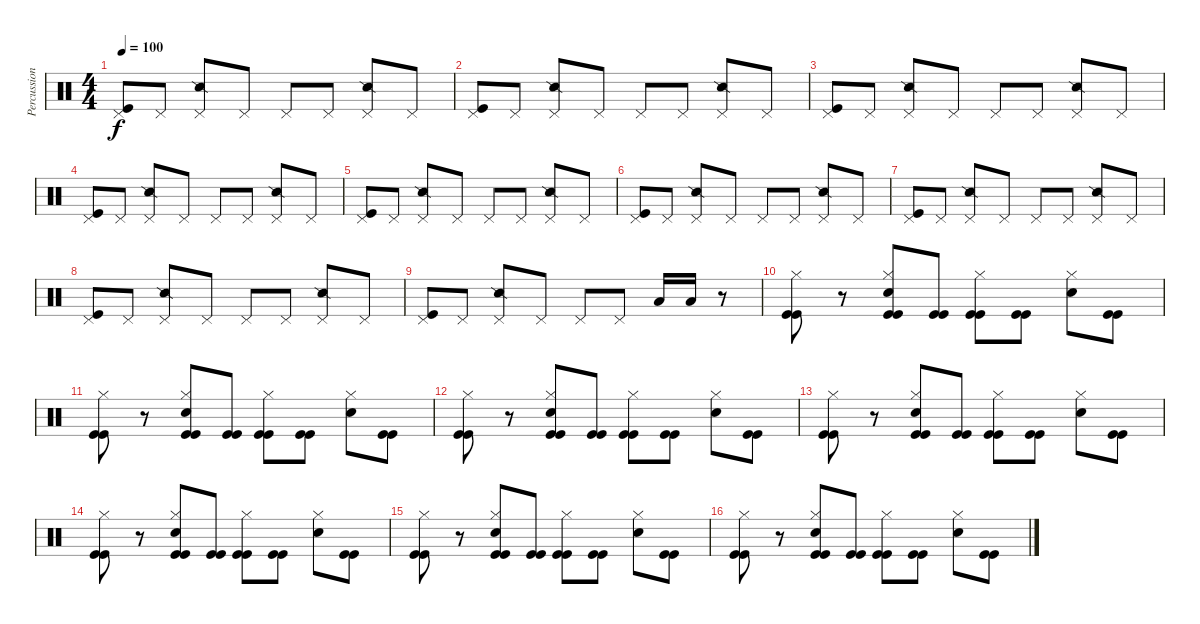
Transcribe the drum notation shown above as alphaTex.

\track ("Percussion" "Percussion") {instrument percussion}
\staff {score}
\articulation defaults
\ts (4 4)
\tempo 100
\clef neutral
\ks c
("Pedal Hi-Hat (hit)" "Kick (hit)").8{dy f} "Pedal Hi-Hat (hit)".8 ("Pedal Hi-Hat (hit)" "Snare (side stick) 2").8 "Pedal Hi-Hat (hit)".8 "Pedal Hi-Hat (hit)".8 "Pedal Hi-Hat (hit)".8 ("Pedal Hi-Hat (hit)" "Snare (side stick) 2").8 "Pedal Hi-Hat (hit)".8 |
("Pedal Hi-Hat (hit)" "Kick (hit)").8 "Pedal Hi-Hat (hit)".8 ("Pedal Hi-Hat (hit)" "Snare (side stick) 2").8 "Pedal Hi-Hat (hit)".8 "Pedal Hi-Hat (hit)".8 "Pedal Hi-Hat (hit)".8 ("Pedal Hi-Hat (hit)" "Snare (side stick) 2").8 "Pedal Hi-Hat (hit)".8 |
("Pedal Hi-Hat (hit)" "Kick (hit)").8 "Pedal Hi-Hat (hit)".8 ("Pedal Hi-Hat (hit)" "Snare (side stick) 2").8 "Pedal Hi-Hat (hit)".8 "Pedal Hi-Hat (hit)".8 "Pedal Hi-Hat (hit)".8 ("Pedal Hi-Hat (hit)" "Snare (side stick) 2").8 "Pedal Hi-Hat (hit)".8 |
("Pedal Hi-Hat (hit)" "Kick (hit)").8 "Pedal Hi-Hat (hit)".8 ("Pedal Hi-Hat (hit)" "Snare (side stick) 2").8 "Pedal Hi-Hat (hit)".8 "Pedal Hi-Hat (hit)".8 "Pedal Hi-Hat (hit)".8 ("Pedal Hi-Hat (hit)" "Snare (side stick) 2").8 "Pedal Hi-Hat (hit)".8 |
("Pedal Hi-Hat (hit)" "Kick (hit)").8 "Pedal Hi-Hat (hit)".8 ("Pedal Hi-Hat (hit)" "Snare (side stick) 2").8 "Pedal Hi-Hat (hit)".8 "Pedal Hi-Hat (hit)".8 "Pedal Hi-Hat (hit)".8 ("Pedal Hi-Hat (hit)" "Snare (side stick) 2").8 "Pedal Hi-Hat (hit)".8 |
("Pedal Hi-Hat (hit)" "Kick (hit)").8 "Pedal Hi-Hat (hit)".8 ("Pedal Hi-Hat (hit)" "Snare (side stick) 2").8 "Pedal Hi-Hat (hit)".8 "Pedal Hi-Hat (hit)".8 "Pedal Hi-Hat (hit)".8 ("Pedal Hi-Hat (hit)" "Snare (side stick) 2").8 "Pedal Hi-Hat (hit)".8 |
("Pedal Hi-Hat (hit)" "Kick (hit)").8 "Pedal Hi-Hat (hit)".8 ("Pedal Hi-Hat (hit)" "Snare (side stick) 2").8 "Pedal Hi-Hat (hit)".8 "Pedal Hi-Hat (hit)".8 "Pedal Hi-Hat (hit)".8 ("Pedal Hi-Hat (hit)" "Snare (side stick) 2").8 "Pedal Hi-Hat (hit)".8 |
("Pedal Hi-Hat (hit)" "Kick (hit)").8 "Pedal Hi-Hat (hit)".8 ("Pedal Hi-Hat (hit)" "Snare (side stick) 2").8 "Pedal Hi-Hat (hit)".8 "Pedal Hi-Hat (hit)".8 "Pedal Hi-Hat (hit)".8 ("Pedal Hi-Hat (hit)" "Snare (side stick) 2").8 "Pedal Hi-Hat (hit)".8 |
("Pedal Hi-Hat (hit)" "Kick (hit)").8 "Pedal Hi-Hat (hit)".8 ("Pedal Hi-Hat (hit)" "Snare (side stick) 2").8 "Pedal Hi-Hat (hit)".8 "Pedal Hi-Hat (hit)".8 "Pedal Hi-Hat (hit)".8 "Low Tom (hit)".16 "Low Tom (hit)".16 r.8 |
("Hi-Hat (closed)" "Kick (hit)" "Kick (hit)").8 r.8 ("Hi-Hat (closed)" "Kick (hit)" "Kick (hit)" "Electric Snare (hit)").8 ("Kick (hit)" "Kick (hit)").8 ("Hi-Hat (closed)" "Kick (hit)" "Kick (hit)").8 ("Kick (hit)" "Kick (hit)").8 ("Hi-Hat (closed)" "Electric Snare (hit)").8 ("Kick (hit)" "Kick (hit)").8 |
("Hi-Hat (closed)" "Kick (hit)" "Kick (hit)").8 r.8 ("Hi-Hat (closed)" "Kick (hit)" "Kick (hit)" "Electric Snare (hit)").8 ("Kick (hit)" "Kick (hit)").8 ("Hi-Hat (closed)" "Kick (hit)" "Kick (hit)").8 ("Kick (hit)" "Kick (hit)").8 ("Hi-Hat (closed)" "Electric Snare (hit)").8 ("Kick (hit)" "Kick (hit)").8 |
("Hi-Hat (closed)" "Kick (hit)" "Kick (hit)").8 r.8 ("Hi-Hat (closed)" "Kick (hit)" "Kick (hit)" "Electric Snare (hit)").8 ("Kick (hit)" "Kick (hit)").8 ("Hi-Hat (closed)" "Kick (hit)" "Kick (hit)").8 ("Kick (hit)" "Kick (hit)").8 ("Hi-Hat (closed)" "Electric Snare (hit)").8 ("Kick (hit)" "Kick (hit)").8 |
("Hi-Hat (closed)" "Kick (hit)" "Kick (hit)").8 r.8 ("Hi-Hat (closed)" "Kick (hit)" "Kick (hit)" "Electric Snare (hit)").8 ("Kick (hit)" "Kick (hit)").8 ("Hi-Hat (closed)" "Kick (hit)" "Kick (hit)").8 ("Kick (hit)" "Kick (hit)").8 ("Hi-Hat (closed)" "Electric Snare (hit)").8 ("Kick (hit)" "Kick (hit)").8 |
("Hi-Hat (closed)" "Kick (hit)" "Kick (hit)").8 r.8 ("Hi-Hat (closed)" "Kick (hit)" "Kick (hit)" "Electric Snare (hit)").8 ("Kick (hit)" "Kick (hit)").8 ("Hi-Hat (closed)" "Kick (hit)" "Kick (hit)").8 ("Kick (hit)" "Kick (hit)").8 ("Hi-Hat (closed)" "Electric Snare (hit)").8 ("Kick (hit)" "Kick (hit)").8 |
("Hi-Hat (closed)" "Kick (hit)" "Kick (hit)").8 r.8 ("Hi-Hat (closed)" "Kick (hit)" "Kick (hit)" "Electric Snare (hit)").8 ("Kick (hit)" "Kick (hit)").8 ("Hi-Hat (closed)" "Kick (hit)" "Kick (hit)").8 ("Kick (hit)" "Kick (hit)").8 ("Hi-Hat (closed)" "Electric Snare (hit)").8 ("Kick (hit)" "Kick (hit)").8 |
("Hi-Hat (closed)" "Kick (hit)" "Kick (hit)").8 r.8 ("Hi-Hat (closed)" "Kick (hit)" "Kick (hit)" "Electric Snare (hit)").8 ("Kick (hit)" "Kick (hit)").8 ("Hi-Hat (closed)" "Kick (hit)" "Kick (hit)").8 ("Kick (hit)" "Kick (hit)").8 ("Hi-Hat (closed)" "Electric Snare (hit)").8 ("Kick (hit)" "Kick (hit)").8
